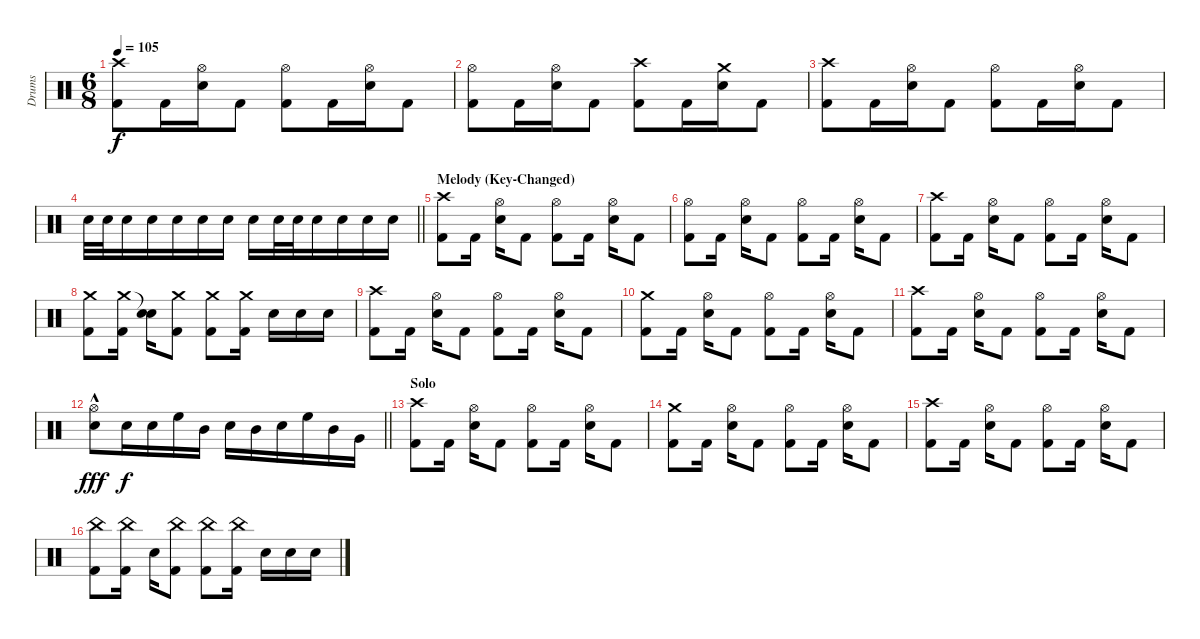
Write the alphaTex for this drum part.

\track ("Drums" "Drums") {instrument percussion}
\staff {score}
\articulation defaults
\ts (6 8)
\tempo 105
\clef neutral
\ks c
("Crash high (hit)" "Kick (hit) 2").8{dy f} "Kick (hit) 2".16 ("Hi-Hat (open)" "Electric Snare (hit)").16 "Kick (hit) 2".8 ("Hi-Hat (open)" "Kick (hit) 2").8 "Kick (hit) 2".16 ("Hi-Hat (open)" "Electric Snare (hit)").16 "Kick (hit) 2".8 |
("Hi-Hat (open)" "Kick (hit) 2").8 "Kick (hit) 2".16 ("Hi-Hat (open)" "Electric Snare (hit)").16 "Kick (hit) 2".8 ("Crash high (hit)" "Kick (hit) 2").8 "Kick (hit) 2".16 ("Crash medium (hit)" "Electric Snare (hit)").16 "Kick (hit) 2".8 |
("Crash high (hit)" "Kick (hit) 2").8 "Kick (hit) 2".16 ("Hi-Hat (open)" "Electric Snare (hit)").16 "Kick (hit) 2".8 ("Hi-Hat (open)" "Kick (hit) 2").8 "Kick (hit) 2".16 ("Hi-Hat (open)" "Electric Snare (hit)").16 "Kick (hit) 2".8 |
\barLineRight lightlight "Electric Snare (hit)".32 "Electric Snare (hit)".32 "Electric Snare (hit)".16 "Electric Snare (hit)".16 "Electric Snare (hit)".16 "Electric Snare (hit)".16 "Electric Snare (hit)".16 "Electric Snare (hit)".16 "Electric Snare (hit)".32 "Electric Snare (hit)".32 "Electric Snare (hit)".16 "Electric Snare (hit)".16 "Electric Snare (hit)".16 "Electric Snare (hit)".16
|
\section ("" "Melody (Key-Changed)")
("Crash high (hit)" "Kick (hit) 2").8 "Kick (hit) 2".16{beam split} ("Hi-Hat (open)" "Electric Snare (hit)").16 "Kick (hit) 2".8 ("Hi-Hat (open)" "Kick (hit) 2").8 "Kick (hit) 2".16{beam split} ("Hi-Hat (open)" "Electric Snare (hit)").16 "Kick (hit) 2".8 |
("Hi-Hat (open)" "Kick (hit) 2").8 "Kick (hit) 2".16{beam split} ("Hi-Hat (open)" "Electric Snare (hit)").16 "Kick (hit) 2".8 ("Hi-Hat (open)" "Kick (hit) 2").8 "Kick (hit) 2".16{beam split} ("Hi-Hat (open)" "Electric Snare (hit)").16 "Kick (hit) 2".8 |
("Crash high (hit)" "Kick (hit) 2").8 "Kick (hit) 2".16{beam split} ("Hi-Hat (open)" "Electric Snare (hit)").16 "Kick (hit) 2".8 ("Hi-Hat (open)" "Kick (hit) 2").8 "Kick (hit) 2".16{beam split} ("Hi-Hat (open)" "Electric Snare (hit)").16 "Kick (hit) 2".8 |
("Crash medium (hit)" "Kick (hit) 2").8 ("Crash medium (hit)" "Kick (hit) 2").16{beam split} ("Snare (hit)"{t} "Electric Snare (hit)").16 ("Crash medium (hit)" "Kick (hit) 2").8 ("Crash medium (hit)" "Kick (hit) 2").8 ("Crash medium (hit)" "Kick (hit) 2").16{beam split} "Electric Snare (hit)".16 "Electric Snare (hit)".16 "Electric Snare (hit)".16 |
("Crash high (hit)" "Kick (hit) 2").8 "Kick (hit) 2".16{beam split} ("Hi-Hat (open)" "Electric Snare (hit)").16 "Kick (hit) 2".8 ("Hi-Hat (open)" "Kick (hit) 2").8 "Kick (hit) 2".16{beam split} ("Hi-Hat (open)" "Electric Snare (hit)").16 "Kick (hit) 2".8 |
("Crash medium (hit)" "Kick (hit) 2").8 "Kick (hit) 2".16{beam split} ("Hi-Hat (open)" "Electric Snare (hit)").16 "Kick (hit) 2".8 ("Hi-Hat (open)" "Kick (hit) 2").8 "Kick (hit) 2".16{beam split} ("Hi-Hat (open)" "Electric Snare (hit)").16 "Kick (hit) 2".8 |
("Crash high (hit)" "Kick (hit) 2").8 "Kick (hit) 2".16{beam split} ("Hi-Hat (open)" "Electric Snare (hit)").16 "Kick (hit) 2".8 ("Hi-Hat (open)" "Kick (hit) 2").8 "Kick (hit) 2".16{beam split} ("Hi-Hat (open)" "Electric Snare (hit)").16 "Kick (hit) 2".8 |
\barLineRight lightlight
("Hi-Hat (open)"{hac} "Electric Snare (hit)").8{dy fff} "Electric Snare (hit)".16{dy f} "Electric Snare (hit)".16 "High Floor Tom (hit)".16 "Mid Tom (hit)".16 "Electric Snare (hit)".16 "Mid Tom (hit)".16 "Electric Snare (hit)".16 "High Floor Tom (hit)".16 "Mid Tom (hit)".16 "Very Low Tom (hit)".16 |
\section ("" "Solo")
("Crash high (hit)" "Kick (hit) 2").8 "Kick (hit) 2".16{beam split} ("Hi-Hat (open)" "Electric Snare (hit)").16 "Kick (hit) 2".8 ("Hi-Hat (open)" "Kick (hit) 2").8 "Kick (hit) 2".16{beam split} ("Hi-Hat (open)" "Electric Snare (hit)").16 "Kick (hit) 2".8 |
("Crash medium (hit)" "Kick (hit) 2").8 "Kick (hit) 2".16{beam split} ("Hi-Hat (open)" "Electric Snare (hit)").16 "Kick (hit) 2".8 ("Hi-Hat (open)" "Kick (hit) 2").8 "Kick (hit) 2".16{beam split} ("Hi-Hat (open)" "Electric Snare (hit)").16 "Kick (hit) 2".8 |
("Crash high (hit)" "Kick (hit) 2").8 "Kick (hit) 2".16{beam split} ("Hi-Hat (open)" "Electric Snare (hit)").16 "Kick (hit) 2".8 ("Hi-Hat (open)" "Kick (hit) 2").8 "Kick (hit) 2".16{beam split} ("Hi-Hat (open)" "Electric Snare (hit)").16 "Kick (hit) 2".8 |
("China (hit)" "Kick (hit) 2").8 ("China (hit)" "Kick (hit) 2").16{beam split} "Electric Snare (hit)".16 ("China (hit)" "Kick (hit) 2").8 ("China (hit)" "Kick (hit) 2").8 ("China (hit)" "Kick (hit) 2").16{beam split} "Electric Snare (hit)".16 "Electric Snare (hit)".16 "Electric Snare (hit)".16
